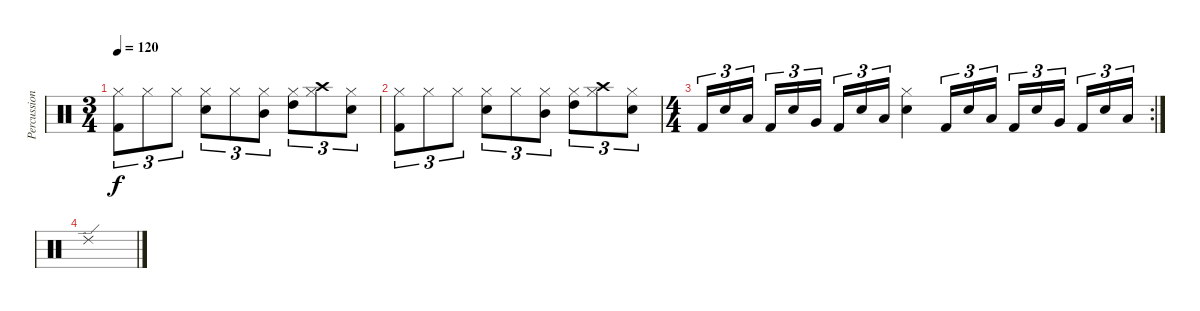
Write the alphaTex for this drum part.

\track ("Percussion" "Percussion") {instrument percussion}
\staff {score}
\articulation defaults
\ts (3 4)
\tempo 120
\clef neutral
\ks c
("Kick (hit) 2" "Hi-Hat (closed)").8{tu (3 2) dy f} "Hi-Hat (closed)".8{tu (3 2)} "Hi-Hat (closed)".8{tu (3 2)} ("Snare (hit) 2" "Hi-Hat (closed)").8{tu (3 2)} "Hi-Hat (closed)".8{tu (3 2)} ("Mid Tom (hit)" "Hi-Hat (closed)").8{tu (3 2)} ("High Tom (hit)" "Hi-Hat (closed)").8{tu (3 2)} ("Crash high (hit)" "Hi-Hat (closed)").8{tu (3 2)} ("Snare (hit) 2" "Hi-Hat (closed)").8{tu (3 2)} |
("Kick (hit) 2" "Hi-Hat (closed)").8{tu (3 2)} "Hi-Hat (closed)".8{tu (3 2)} "Hi-Hat (closed)".8{tu (3 2)} ("Snare (hit) 2" "Hi-Hat (closed)").8{tu (3 2)} "Hi-Hat (closed)".8{tu (3 2)} ("Mid Tom (hit)" "Hi-Hat (closed)").8{tu (3 2)} ("High Tom (hit)" "Hi-Hat (closed)").8{tu (3 2)} ("Crash high (hit)" "Hi-Hat (closed)").8{tu (3 2)} ("Snare (hit) 2" "Hi-Hat (closed)").8{tu (3 2)} |
\rc 2
\ts (4 4)
"Kick (hit) 2".16{tu (3 2)} "Snare (hit) 2".16{tu (3 2)} "Low Floor Tom (hit)".16{tu (3 2) beam splitsecondary} "Kick (hit) 2".16{tu (3 2)} "Snare (hit) 2".16{tu (3 2)} "Very Low Tom (hit)".16{tu (3 2)} "Kick (hit) 2".16{tu (3 2)} "Snare (hit) 2".16{tu (3 2)} "Low Tom (hit)".16{tu (3 2)} ("Hi-Hat (closed)" "Snare (hit) 2").4 "Kick (hit) 2".16{tu (3 2)} "Snare (hit) 2".16{tu (3 2)} "Low Floor Tom (hit)".16{tu (3 2)} "Kick (hit) 2".16{tu (3 2)} "Snare (hit) 2".16{tu (3 2)} "Very Low Tom (hit)".16{tu (3 2) beam splitsecondary} "Kick (hit) 2".16{tu (3 2)} "Snare (hit) 2".16{tu (3 2)} "Low Tom (hit)".16{tu (3 2)} |
"Ride (edge) 2".1
